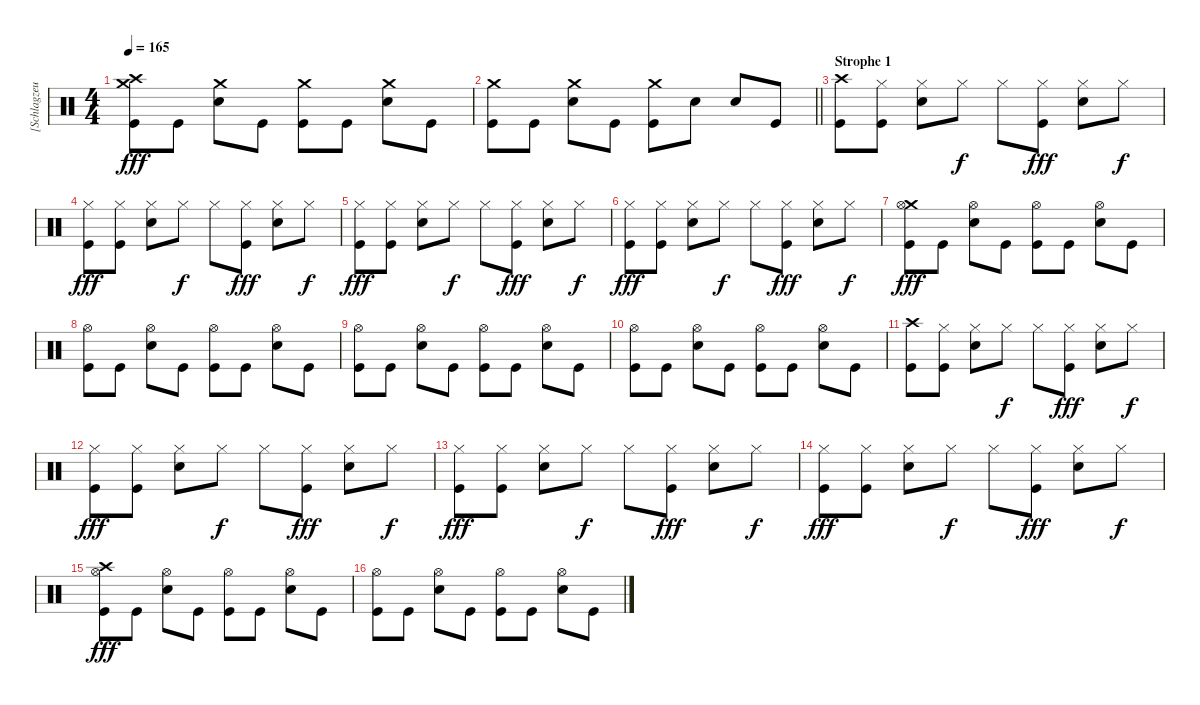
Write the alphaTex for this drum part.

\track ("[Schlagzeug]" "[Schlagzeu") {instrument percussion}
\staff {score}
\articulation defaults
\ts (4 4)
\tempo 165
\clef neutral
\ks c
("Crash medium (hit)" "Crash high (hit)" "Kick (hit)").8{dy fff} "Kick (hit)".8 ("Crash medium (hit)" "Electric Snare (hit)").8 "Kick (hit)".8 ("Crash medium (hit)" "Kick (hit)").8 "Kick (hit)".8 ("Crash medium (hit)" "Electric Snare (hit)").8 "Kick (hit)".8 |
\barLineRight lightlight
("Crash medium (hit)" "Kick (hit)").8 "Kick (hit)".8 ("Crash medium (hit)" "Electric Snare (hit)").8 "Kick (hit)".8 ("Crash medium (hit)" "Kick (hit)").8 "Electric Snare (hit)".8 "Electric Snare (hit)".8 "Kick (hit)".8 |
\section ("" "Strophe 1")
("Crash high (hit)" "Kick (hit)").8 ("Hi-Hat (closed)" "Kick (hit)").8 ("Hi-Hat (closed)" "Electric Snare (hit)").8 "Hi-Hat (closed)".8{dy f} "Hi-Hat (closed)".8 ("Hi-Hat (closed)" "Kick (hit)").8{dy fff} ("Hi-Hat (closed)" "Electric Snare (hit)").8 "Hi-Hat (closed)".8{dy f} |
("Hi-Hat (closed)" "Kick (hit)").8{dy fff} ("Hi-Hat (closed)" "Kick (hit)").8 ("Hi-Hat (closed)" "Electric Snare (hit)").8 "Hi-Hat (closed)".8{dy f} "Hi-Hat (closed)".8 ("Hi-Hat (closed)" "Kick (hit)").8{dy fff} ("Hi-Hat (closed)" "Electric Snare (hit)").8 "Hi-Hat (closed)".8{dy f} |
("Hi-Hat (closed)" "Kick (hit)").8{dy fff} ("Hi-Hat (closed)" "Kick (hit)").8 ("Hi-Hat (closed)" "Electric Snare (hit)").8 "Hi-Hat (closed)".8{dy f} "Hi-Hat (closed)".8 ("Hi-Hat (closed)" "Kick (hit)").8{dy fff} ("Hi-Hat (closed)" "Electric Snare (hit)").8 "Hi-Hat (closed)".8{dy f} |
("Hi-Hat (closed)" "Kick (hit)").8{dy fff} ("Hi-Hat (closed)" "Kick (hit)").8 ("Hi-Hat (closed)" "Electric Snare (hit)").8 "Hi-Hat (closed)".8{dy f} "Hi-Hat (closed)".8 ("Hi-Hat (closed)" "Kick (hit)").8{dy fff} ("Hi-Hat (closed)" "Electric Snare (hit)").8 "Hi-Hat (closed)".8{dy f} |
("Crash medium (hit)" "Hi-Hat (open)" "Kick (hit)").8{dy fff} "Kick (hit)".8 ("Hi-Hat (open)" "Electric Snare (hit)").8 "Kick (hit)".8 ("Hi-Hat (open)" "Kick (hit)").8 "Kick (hit)".8 ("Hi-Hat (open)" "Electric Snare (hit)").8 "Kick (hit)".8 |
("Hi-Hat (open)" "Kick (hit)").8 "Kick (hit)".8 ("Hi-Hat (open)" "Electric Snare (hit)").8 "Kick (hit)".8 ("Hi-Hat (open)" "Kick (hit)").8 "Kick (hit)".8 ("Hi-Hat (open)" "Electric Snare (hit)").8 "Kick (hit)".8 |
("Hi-Hat (open)" "Kick (hit)").8 "Kick (hit)".8 ("Hi-Hat (open)" "Electric Snare (hit)").8 "Kick (hit)".8 ("Hi-Hat (open)" "Kick (hit)").8 "Kick (hit)".8 ("Hi-Hat (open)" "Electric Snare (hit)").8 "Kick (hit)".8 |
("Hi-Hat (open)" "Kick (hit)").8 "Kick (hit)".8 ("Hi-Hat (open)" "Electric Snare (hit)").8 "Kick (hit)".8 ("Hi-Hat (open)" "Kick (hit)").8 "Kick (hit)".8 ("Hi-Hat (open)" "Electric Snare (hit)").8 "Kick (hit)".8 |
("Crash high (hit)" "Kick (hit)").8 ("Hi-Hat (closed)" "Kick (hit)").8 ("Hi-Hat (closed)" "Electric Snare (hit)").8 "Hi-Hat (closed)".8{dy f} "Hi-Hat (closed)".8 ("Hi-Hat (closed)" "Kick (hit)").8{dy fff} ("Hi-Hat (closed)" "Electric Snare (hit)").8 "Hi-Hat (closed)".8{dy f} |
("Hi-Hat (closed)" "Kick (hit)").8{dy fff} ("Hi-Hat (closed)" "Kick (hit)").8 ("Hi-Hat (closed)" "Electric Snare (hit)").8 "Hi-Hat (closed)".8{dy f} "Hi-Hat (closed)".8 ("Hi-Hat (closed)" "Kick (hit)").8{dy fff} ("Hi-Hat (closed)" "Electric Snare (hit)").8 "Hi-Hat (closed)".8{dy f} |
("Hi-Hat (closed)" "Kick (hit)").8{dy fff} ("Hi-Hat (closed)" "Kick (hit)").8 ("Hi-Hat (closed)" "Electric Snare (hit)").8 "Hi-Hat (closed)".8{dy f} "Hi-Hat (closed)".8 ("Hi-Hat (closed)" "Kick (hit)").8{dy fff} ("Hi-Hat (closed)" "Electric Snare (hit)").8 "Hi-Hat (closed)".8{dy f} |
("Hi-Hat (closed)" "Kick (hit)").8{dy fff} ("Hi-Hat (closed)" "Kick (hit)").8 ("Hi-Hat (closed)" "Electric Snare (hit)").8 "Hi-Hat (closed)".8{dy f} "Hi-Hat (closed)".8 ("Hi-Hat (closed)" "Kick (hit)").8{dy fff} ("Hi-Hat (closed)" "Electric Snare (hit)").8 "Hi-Hat (closed)".8{dy f} |
("Hi-Hat (open)" "Crash high (hit)" "Kick (hit)").8{dy fff} "Kick (hit)".8 ("Hi-Hat (open)" "Electric Snare (hit)").8 "Kick (hit)".8 ("Hi-Hat (open)" "Kick (hit)").8 "Kick (hit)".8 ("Hi-Hat (open)" "Electric Snare (hit)").8 "Kick (hit)".8 |
("Hi-Hat (open)" "Kick (hit)").8 "Kick (hit)".8 ("Hi-Hat (open)" "Electric Snare (hit)").8 "Kick (hit)".8 ("Hi-Hat (open)" "Kick (hit)").8 "Kick (hit)".8 ("Hi-Hat (open)" "Electric Snare (hit)").8 "Kick (hit)".8
